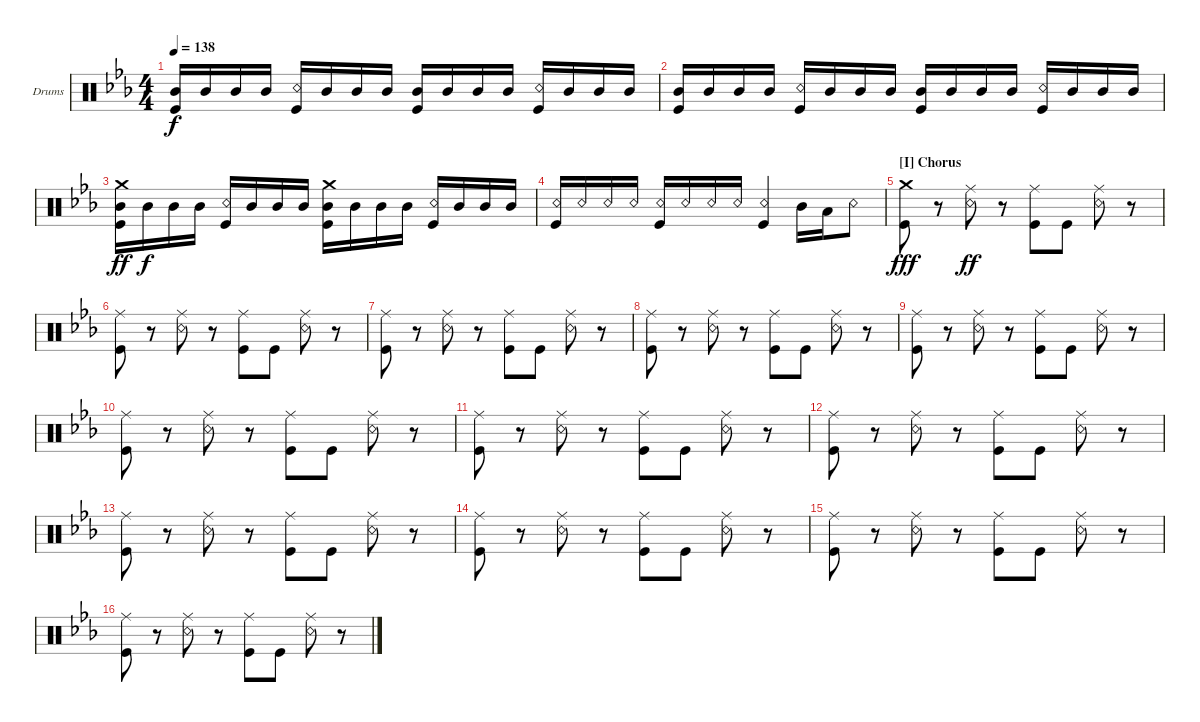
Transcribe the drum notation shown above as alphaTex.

\defaultSystemsLayout 4
\bracketExtendMode groupsimilarinstruments
\firstSystemTrackNameOrientation horizontal
\otherSystemsTrackNameOrientation horizontal
\track ("Drums" "Drums") {instrument percussion}
\staff {score}
\articulation defaults
\ts (4 4)
\tempo 138
\clef neutral
\ks eb
("Mid Tom (hit)" "Kick (hit)").16{dy f} "Mid Tom (hit)".16 "Mid Tom (hit)".16 "Mid Tom (hit)".16 ("Snare (rim shot)" "Kick (hit)").16 "Mid Tom (hit)".16 "Mid Tom (hit)".16 "Mid Tom (hit)".16 ("Mid Tom (hit)" "Kick (hit)").16 "Mid Tom (hit)".16 "Mid Tom (hit)".16 "Mid Tom (hit)".16 ("Snare (rim shot)" "Kick (hit)").16 "Mid Tom (hit)".16 "Mid Tom (hit)".16 "Mid Tom (hit)".16 |
("Mid Tom (hit)" "Kick (hit)").16 "Mid Tom (hit)".16 "Mid Tom (hit)".16 "Mid Tom (hit)".16 ("Snare (rim shot)" "Kick (hit)").16 "Mid Tom (hit)".16 "Mid Tom (hit)".16 "Mid Tom (hit)".16 ("Mid Tom (hit)" "Kick (hit)").16 "Mid Tom (hit)".16 "Mid Tom (hit)".16 "Mid Tom (hit)".16 ("Snare (rim shot)" "Kick (hit)").16 "Mid Tom (hit)".16 "Mid Tom (hit)".16 "Mid Tom (hit)".16 |
("Mid Tom (hit)" "Kick (hit)" "Crash medium (hit)").16{dy ff} "Mid Tom (hit)".16{dy f} "Mid Tom (hit)".16 "Mid Tom (hit)".16 ("Snare (rim shot)" "Kick (hit)").16 "Mid Tom (hit)".16 "Mid Tom (hit)".16 "Mid Tom (hit)".16 ("Mid Tom (hit)" "Kick (hit)" "Crash medium (hit)").16 "Mid Tom (hit)".16 "Mid Tom (hit)".16 "Mid Tom (hit)".16 ("Snare (rim shot)" "Kick (hit)").16 "Mid Tom (hit)".16 "Mid Tom (hit)".16 "Mid Tom (hit)".16 |
("Kick (hit)" "Snare (rim shot)").16 "Snare (rim shot)".16 "Snare (rim shot)".16 "Snare (rim shot)".16 ("Snare (rim shot)" "Kick (hit)").16 "Snare (rim shot)".16 "Snare (rim shot)".16 "Snare (rim shot)".16 ("Kick (hit)" "Snare (rim shot)").4 "Mid Tom (hit)".16 "Low Tom (hit)".16 "Snare (rim shot)".8 |
\section ("I" "Chorus")
("Kick (hit)" "Crash medium (hit)").8{dy fff} r.8 ("Ride (middle)" "Snare (rim shot)").8{dy ff} r.8 ("Ride (middle)" "Kick (hit)").8 "Kick (hit)".8 ("Ride (middle)" "Snare (rim shot)").8 r.8 |
("Kick (hit)" "Ride (middle)").8 r.8 ("Ride (middle)" "Snare (rim shot)").8 r.8 ("Ride (middle)" "Kick (hit)").8 "Kick (hit)".8 ("Ride (middle)" "Snare (rim shot)").8 r.8 |
("Kick (hit)" "Ride (middle)").8 r.8 ("Ride (middle)" "Snare (rim shot)").8 r.8 ("Ride (middle)" "Kick (hit)").8 "Kick (hit)".8 ("Ride (middle)" "Snare (rim shot)").8 r.8 |
("Kick (hit)" "Ride (middle)").8 r.8 ("Ride (middle)" "Snare (rim shot)").8 r.8 ("Ride (middle)" "Kick (hit)").8 "Kick (hit)".8 ("Ride (middle)" "Snare (rim shot)").8 r.8 |
("Kick (hit)" "Ride (middle)").8 r.8 ("Ride (middle)" "Snare (rim shot)").8 r.8 ("Ride (middle)" "Kick (hit)").8 "Kick (hit)".8 ("Ride (middle)" "Snare (rim shot)").8 r.8 |
("Kick (hit)" "Ride (middle)").8 r.8 ("Ride (middle)" "Snare (rim shot)").8 r.8 ("Ride (middle)" "Kick (hit)").8 "Kick (hit)".8 ("Ride (middle)" "Snare (rim shot)").8 r.8 |
("Kick (hit)" "Ride (middle)").8 r.8 ("Ride (middle)" "Snare (rim shot)").8 r.8 ("Ride (middle)" "Kick (hit)").8 "Kick (hit)".8 ("Ride (middle)" "Snare (rim shot)").8 r.8 |
("Kick (hit)" "Ride (middle)").8 r.8 ("Ride (middle)" "Snare (rim shot)").8 r.8 ("Ride (middle)" "Kick (hit)").8 "Kick (hit)".8 ("Ride (middle)" "Snare (rim shot)").8 r.8 |
("Kick (hit)" "Ride (middle)").8 r.8 ("Ride (middle)" "Snare (rim shot)").8 r.8 ("Ride (middle)" "Kick (hit)").8 "Kick (hit)".8 ("Ride (middle)" "Snare (rim shot)").8 r.8 |
("Kick (hit)" "Ride (middle)").8 r.8 ("Ride (middle)" "Snare (rim shot)").8 r.8 ("Ride (middle)" "Kick (hit)").8 "Kick (hit)".8 ("Ride (middle)" "Snare (rim shot)").8 r.8 |
("Kick (hit)" "Ride (middle)").8 r.8 ("Ride (middle)" "Snare (rim shot)").8 r.8 ("Ride (middle)" "Kick (hit)").8 "Kick (hit)".8 ("Ride (middle)" "Snare (rim shot)").8 r.8 |
("Kick (hit)" "Ride (middle)").8 r.8 ("Ride (middle)" "Snare (rim shot)").8 r.8 ("Ride (middle)" "Kick (hit)").8 "Kick (hit)".8 ("Ride (middle)" "Snare (rim shot)").8 r.8
